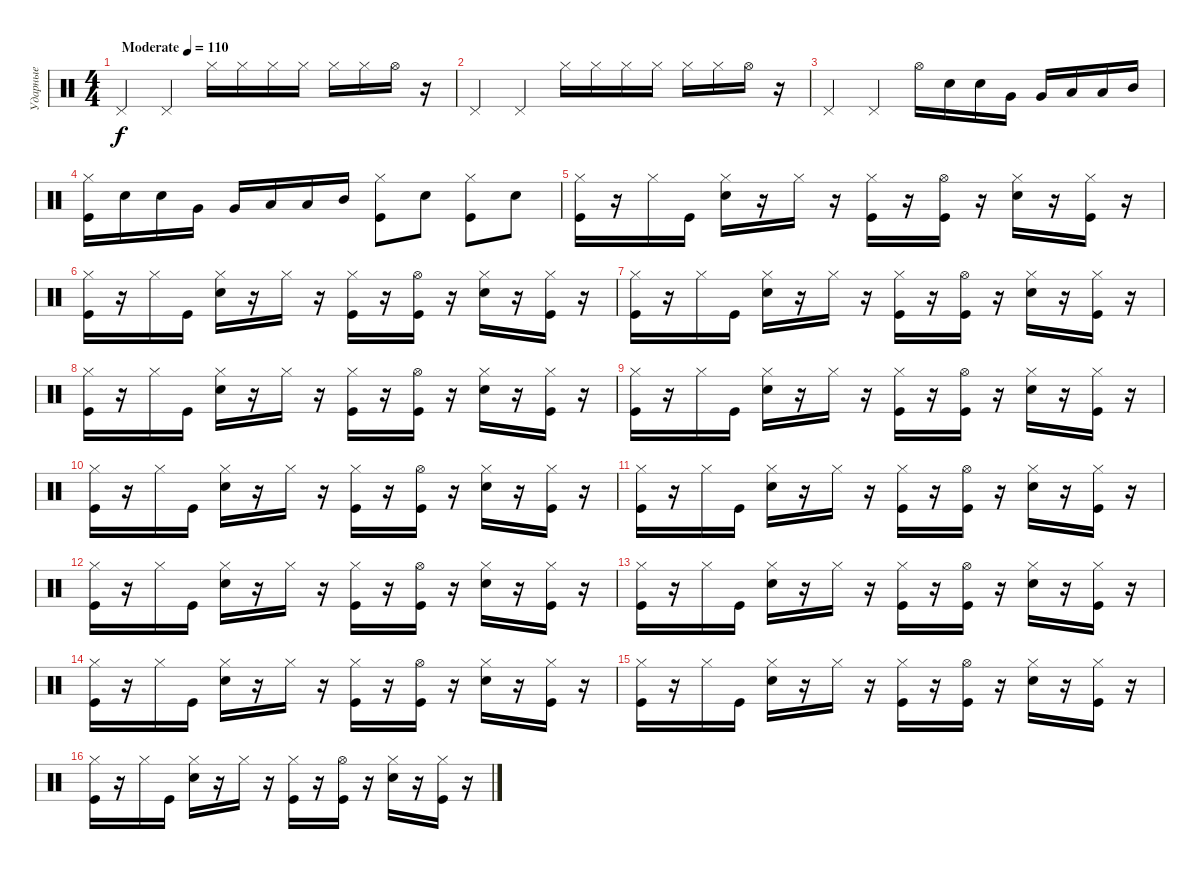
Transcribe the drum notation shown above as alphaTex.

\track ("Ударные" "Ударные") {instrument percussion}
\staff {score}
\articulation defaults
\ts (4 4)
\tempo (110 "Moderate")
\clef neutral
\ks c "Pedal Hi-Hat (hit)".4{dy f} "Pedal Hi-Hat (hit)".4 "Hi-Hat (closed)".16 "Hi-Hat (closed)".16 "Hi-Hat (closed)".16 "Hi-Hat (closed)".16 "Hi-Hat (closed)".16 "Hi-Hat (closed)".16 "Hi-Hat (open)".16
r.16 |
"Pedal Hi-Hat (hit)".4 "Pedal Hi-Hat (hit)".4 "Hi-Hat (closed)".16 "Hi-Hat (closed)".16 "Hi-Hat (closed)".16 "Hi-Hat (closed)".16 "Hi-Hat (closed)".16 "Hi-Hat (closed)".16 "Hi-Hat (open)".16 r.16 |
"Pedal Hi-Hat (hit)".4 "Pedal Hi-Hat (hit)".4 "Hi-Hat (open)".16 "Snare (hit) 2".16 "Snare (hit) 2".16 "Very Low Tom (hit)".16 "Very Low Tom (hit)".16 "Low Tom (hit)".16 "Low Tom (hit)".16 "Mid Tom (hit)".16 |
("Kick (hit)" "Hi-Hat (closed)").16 "Snare (hit) 2".16 "Snare (hit) 2".16 "Very Low Tom (hit)".16 "Very Low Tom (hit)".16 "Low Tom (hit)".16 "Low Tom (hit)".16 "Mid Tom (hit)".16 ("Kick (hit)" "Hi-Hat (closed)").8 "Snare (hit) 2".8 ("Kick (hit)" "Hi-Hat (closed)").8 "Snare (hit) 2".8 |
("Hi-Hat (closed)" "Kick (hit)").16 r.16 "Hi-Hat (closed)".16 "Kick (hit)".16 ("Hi-Hat (closed)" "Snare (hit) 2").16 r.16 "Hi-Hat (closed)".16 r.16 ("Hi-Hat (closed)" "Kick (hit)").16 r.16 ("Hi-Hat (open)" "Kick (hit)").16 r.16 ("Snare (hit) 2" "Hi-Hat (closed)").16 r.16 ("Hi-Hat (closed)" "Kick (hit)").16 r.16 |
("Hi-Hat (closed)" "Kick (hit)").16 r.16 "Hi-Hat (closed)".16 "Kick (hit)".16 ("Hi-Hat (closed)" "Snare (hit) 2").16 r.16 "Hi-Hat (closed)".16 r.16 ("Hi-Hat (closed)" "Kick (hit)").16 r.16 ("Hi-Hat (open)" "Kick (hit)").16 r.16 ("Snare (hit) 2" "Hi-Hat (closed)").16 r.16 ("Hi-Hat (closed)" "Kick (hit)").16 r.16 |
("Hi-Hat (closed)" "Kick (hit)").16 r.16 "Hi-Hat (closed)".16 "Kick (hit)".16 ("Hi-Hat (closed)" "Snare (hit) 2").16 r.16 "Hi-Hat (closed)".16 r.16 ("Hi-Hat (closed)" "Kick (hit)").16 r.16 ("Hi-Hat (open)" "Kick (hit)").16 r.16 ("Snare (hit) 2" "Hi-Hat (closed)").16 r.16 ("Hi-Hat (closed)" "Kick (hit)").16 r.16 |
("Hi-Hat (closed)" "Kick (hit)").16 r.16 "Hi-Hat (closed)".16 "Kick (hit)".16 ("Hi-Hat (closed)" "Snare (hit) 2").16 r.16 "Hi-Hat (closed)".16 r.16 ("Hi-Hat (closed)" "Kick (hit)").16 r.16 ("Hi-Hat (open)" "Kick (hit)").16 r.16 ("Snare (hit) 2" "Hi-Hat (closed)").16 r.16 ("Hi-Hat (closed)" "Kick (hit)").16 r.16 |
("Hi-Hat (closed)" "Kick (hit)").16 r.16 "Hi-Hat (closed)".16 "Kick (hit)".16 ("Hi-Hat (closed)" "Snare (hit) 2").16 r.16 "Hi-Hat (closed)".16 r.16 ("Hi-Hat (closed)" "Kick (hit)").16 r.16 ("Hi-Hat (open)" "Kick (hit)").16 r.16 ("Snare (hit) 2" "Hi-Hat (closed)").16 r.16 ("Hi-Hat (closed)" "Kick (hit)").16 r.16 |
("Hi-Hat (closed)" "Kick (hit)").16 r.16 "Hi-Hat (closed)".16 "Kick (hit)".16 ("Hi-Hat (closed)" "Snare (hit) 2").16 r.16 "Hi-Hat (closed)".16 r.16 ("Hi-Hat (closed)" "Kick (hit)").16 r.16 ("Hi-Hat (open)" "Kick (hit)").16 r.16 ("Snare (hit) 2" "Hi-Hat (closed)").16 r.16 ("Hi-Hat (closed)" "Kick (hit)").16 r.16 |
("Hi-Hat (closed)" "Kick (hit)").16 r.16 "Hi-Hat (closed)".16 "Kick (hit)".16 ("Hi-Hat (closed)" "Snare (hit) 2").16 r.16 "Hi-Hat (closed)".16 r.16 ("Hi-Hat (closed)" "Kick (hit)").16 r.16 ("Hi-Hat (open)" "Kick (hit)").16 r.16 ("Snare (hit) 2" "Hi-Hat (closed)").16 r.16 ("Hi-Hat (closed)" "Kick (hit)").16 r.16 |
("Hi-Hat (closed)" "Kick (hit)").16 r.16 "Hi-Hat (closed)".16 "Kick (hit)".16 ("Hi-Hat (closed)" "Snare (hit) 2").16 r.16 "Hi-Hat (closed)".16 r.16 ("Hi-Hat (closed)" "Kick (hit)").16 r.16 ("Hi-Hat (open)" "Kick (hit)").16 r.16 ("Snare (hit) 2" "Hi-Hat (closed)").16 r.16 ("Hi-Hat (closed)" "Kick (hit)").16 r.16 |
("Hi-Hat (closed)" "Kick (hit)").16 r.16 "Hi-Hat (closed)".16 "Kick (hit)".16 ("Hi-Hat (closed)" "Snare (hit) 2").16 r.16 "Hi-Hat (closed)".16 r.16 ("Hi-Hat (closed)" "Kick (hit)").16 r.16 ("Hi-Hat (open)" "Kick (hit)").16 r.16 ("Snare (hit) 2" "Hi-Hat (closed)").16 r.16 ("Hi-Hat (closed)" "Kick (hit)").16 r.16 |
("Hi-Hat (closed)" "Kick (hit)").16 r.16 "Hi-Hat (closed)".16 "Kick (hit)".16 ("Hi-Hat (closed)" "Snare (hit) 2").16 r.16 "Hi-Hat (closed)".16 r.16 ("Hi-Hat (closed)" "Kick (hit)").16 r.16 ("Hi-Hat (open)" "Kick (hit)").16 r.16 ("Snare (hit) 2" "Hi-Hat (closed)").16 r.16 ("Hi-Hat (closed)" "Kick (hit)").16 r.16 |
("Hi-Hat (closed)" "Kick (hit)").16 r.16 "Hi-Hat (closed)".16 "Kick (hit)".16 ("Hi-Hat (closed)" "Snare (hit) 2").16 r.16 "Hi-Hat (closed)".16 r.16 ("Hi-Hat (closed)" "Kick (hit)").16 r.16 ("Hi-Hat (open)" "Kick (hit)").16 r.16 ("Snare (hit) 2" "Hi-Hat (closed)").16 r.16 ("Hi-Hat (closed)" "Kick (hit)").16 r.16 |
("Hi-Hat (closed)" "Kick (hit)").16 r.16 "Hi-Hat (closed)".16 "Kick (hit)".16 ("Hi-Hat (closed)" "Snare (hit) 2").16 r.16 "Hi-Hat (closed)".16 r.16 ("Hi-Hat (closed)" "Kick (hit)").16 r.16 ("Hi-Hat (open)" "Kick (hit)").16 r.16 ("Snare (hit) 2" "Hi-Hat (closed)").16 r.16 ("Hi-Hat (closed)" "Kick (hit)").16 r.16
